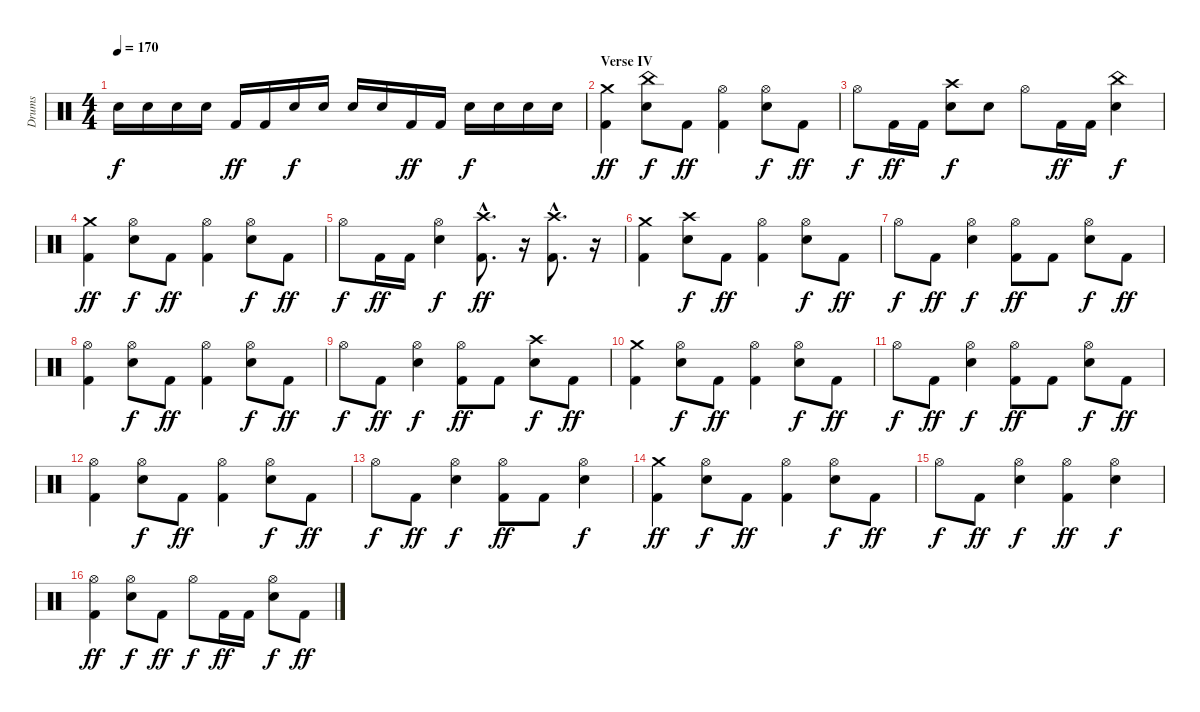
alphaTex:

\track ("Drums" "Drums") {instrument percussion}
\staff {score}
\articulation defaults
\ts (4 4)
\tempo 170
\clef neutral
\ks c "Electric Snare (hit)".16{dy f} "Electric Snare (hit)".16 "Electric Snare (hit)".16 "Electric Snare (hit)".16 "Kick (hit) 2".16{dy ff} "Kick (hit) 2".16 "Electric Snare (hit)".16{dy f} "Electric Snare (hit)".16 "Electric Snare (hit)".16 "Electric Snare (hit)".16 "Kick (hit) 2".16{dy ff} "Kick (hit) 2".16 "Electric Snare (hit)".16{dy f} "Electric Snare (hit)".16 "Electric Snare (hit)".16 "Electric Snare (hit)".16
|
\section ("" "Verse IV")
("Crash medium (hit)" "Kick (hit) 2").4{dy ff} ("China (hit)" "Electric Snare (hit)").8{dy f} "Kick (hit) 2".8{dy ff} ("Hi-Hat (open)" "Kick (hit) 2").4 ("Hi-Hat (open)" "Electric Snare (hit)").8{dy f} "Kick (hit) 2".8{dy ff} |
"Hi-Hat (open)".8{dy f} "Kick (hit) 2".16{dy ff} "Kick (hit) 2".16 ("Crash high (hit)" "Electric Snare (hit)").8{dy f} "Electric Snare (hit)".8 "Hi-Hat (open)".8 "Kick (hit) 2".16{dy ff} "Kick (hit) 2".16 ("China (hit)" "Electric Snare (hit)").4{dy f} |
("Crash medium (hit)" "Kick (hit) 2").4{dy ff} ("Hi-Hat (open)" "Electric Snare (hit)").8{dy f} "Kick (hit) 2".8{dy ff} ("Hi-Hat (open)" "Kick (hit) 2").4 ("Hi-Hat (open)" "Electric Snare (hit)").8{dy f} "Kick (hit) 2".8{dy ff} |
"Hi-Hat (open)".8{dy f} "Kick (hit) 2".16{dy ff} "Kick (hit) 2".16 ("Hi-Hat (open)" "Electric Snare (hit)").4{dy f} ("Crash high (hit)"{hac} "Kick (hit) 2"{hac}).8{d dy ff} r.16{volume 6} ("Crash high (hit)"{hac} "Kick (hit) 2"{hac}).8{d volume 13} r.16{volume 5} |
("Crash medium (hit)" "Kick (hit) 2").4{volume 13} ("Crash high (hit)" "Electric Snare (hit)").8{dy f} "Kick (hit) 2".8{dy ff} ("Hi-Hat (open)" "Kick (hit) 2").4 ("Hi-Hat (open)" "Electric Snare (hit)").8{dy f} "Kick (hit) 2".8{dy ff} |
"Hi-Hat (open)".8{dy f} "Kick (hit) 2".8{dy ff} ("Hi-Hat (open)" "Electric Snare (hit)").4{dy f} ("Hi-Hat (open)" "Kick (hit) 2").8{dy ff} "Kick (hit) 2".8 ("Hi-Hat (open)" "Electric Snare (hit)").8{dy f} "Kick (hit) 2".8{dy ff} |
("Hi-Hat (open)" "Kick (hit) 2").4 ("Hi-Hat (open)" "Electric Snare (hit)").8{dy f} "Kick (hit) 2".8{dy ff} ("Hi-Hat (open)" "Kick (hit) 2").4 ("Hi-Hat (open)" "Electric Snare (hit)").8{dy f} "Kick (hit) 2".8{dy ff} |
"Hi-Hat (open)".8{dy f} "Kick (hit) 2".8{dy ff} ("Hi-Hat (open)" "Electric Snare (hit)").4{dy f} ("Hi-Hat (open)" "Kick (hit) 2").8{dy ff} "Kick (hit) 2".8 ("Crash high (hit)" "Electric Snare (hit)").8{dy f} "Kick (hit) 2".8{dy ff} |
("Crash medium (hit)" "Kick (hit) 2").4 ("Hi-Hat (open)" "Electric Snare (hit)").8{dy f} "Kick (hit) 2".8{dy ff} ("Hi-Hat (open)" "Kick (hit) 2").4 ("Hi-Hat (open)" "Electric Snare (hit)").8{dy f} "Kick (hit) 2".8{dy ff} |
"Hi-Hat (open)".8{dy f} "Kick (hit) 2".8{dy ff} ("Hi-Hat (open)" "Electric Snare (hit)").4{dy f} ("Hi-Hat (open)" "Kick (hit) 2").8{dy ff} "Kick (hit) 2".8 ("Hi-Hat (open)" "Electric Snare (hit)").8{dy f} "Kick (hit) 2".8{dy ff} |
("Hi-Hat (open)" "Kick (hit) 2").4 ("Hi-Hat (open)" "Electric Snare (hit)").8{dy f} "Kick (hit) 2".8{dy ff} ("Hi-Hat (open)" "Kick (hit) 2").4 ("Hi-Hat (open)" "Electric Snare (hit)").8{dy f} "Kick (hit) 2".8{dy ff} |
"Hi-Hat (open)".8{dy f} "Kick (hit) 2".8{dy ff} ("Hi-Hat (open)" "Electric Snare (hit)").4{dy f} ("Hi-Hat (open)" "Kick (hit) 2").8{dy ff} "Kick (hit) 2".8 ("Hi-Hat (open)" "Electric Snare (hit)").4{dy f} |
("Crash medium (hit)" "Kick (hit) 2").4{dy ff} ("Hi-Hat (open)" "Electric Snare (hit)").8{dy f} "Kick (hit) 2".8{dy ff} ("Hi-Hat (open)" "Kick (hit) 2").4 ("Hi-Hat (open)" "Electric Snare (hit)").8{dy f} "Kick (hit) 2".8{dy ff} |
"Hi-Hat (open)".8{dy f} "Kick (hit) 2".8{dy ff} ("Hi-Hat (open)" "Electric Snare (hit)").4{dy f} ("Hi-Hat (open)" "Kick (hit) 2").4{dy ff} ("Hi-Hat (open)" "Electric Snare (hit)").4{dy f} |
("Hi-Hat (open)" "Kick (hit) 2").4{dy ff} ("Hi-Hat (open)" "Electric Snare (hit)").8{dy f} "Kick (hit) 2".8{dy ff} "Hi-Hat (open)".8{dy f} "Kick (hit) 2".16{dy ff} "Kick (hit) 2".16 ("Hi-Hat (open)" "Electric Snare (hit)").8{dy f} "Kick (hit) 2".8{dy ff}
